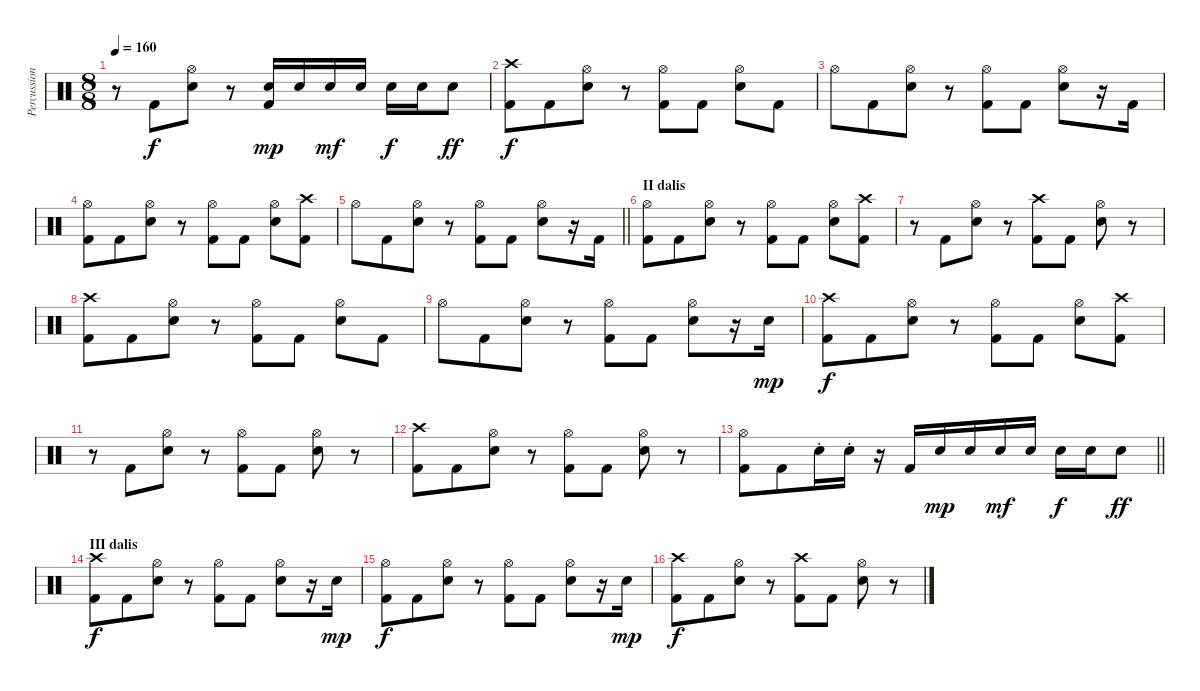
\track ("Percussion" "Percussion") {instrument percussion}
\staff {score}
\articulation defaults
\ts (8 8)
\tempo 160
\clef neutral
\ks c
r.8{dy f} "Kick (hit) 2".8 ("Hi-Hat (open)" "Snare (hit) 2").8 r.8 ("Snare (hit) 2" "Kick (hit) 2").16{dy mp} "Snare (hit) 2".16 "Snare (hit) 2".16{dy mf} "Snare (hit) 2".16 "Snare (hit) 2".16{dy f} "Snare (hit) 2".16 "Snare (hit) 2".8{dy ff} |
("Crash high (hit)" "Kick (hit) 2").8{dy f} "Kick (hit) 2".8 ("Hi-Hat (open)" "Snare (hit) 2").8 r.8 ("Hi-Hat (open)" "Kick (hit) 2").8 "Kick (hit) 2".8 ("Hi-Hat (open)" "Snare (hit) 2").8 "Kick (hit) 2".8 |
"Hi-Hat (open)".8 "Kick (hit) 2".8 ("Hi-Hat (open)" "Snare (hit) 2").8 r.8 ("Hi-Hat (open)" "Kick (hit) 2").8 "Kick (hit) 2".8 ("Hi-Hat (open)" "Snare (hit) 2").8 r.16 "Kick (hit) 2".16 |
("Hi-Hat (open)" "Kick (hit) 2").8 "Kick (hit) 2".8 ("Hi-Hat (open)" "Snare (hit) 2").8 r.8 ("Hi-Hat (open)" "Kick (hit) 2").8 "Kick (hit) 2".8 ("Hi-Hat (open)" "Snare (hit) 2").8 ("Crash high (hit)" "Kick (hit) 2").8 |
\barLineRight lightlight "Hi-Hat (open)".8 "Kick (hit) 2".8
("Hi-Hat (open)" "Snare (hit) 2").8 r.8 ("Hi-Hat (open)" "Kick (hit) 2").8 "Kick (hit) 2".8 ("Hi-Hat (open)" "Snare (hit) 2").8 r.16 "Kick (hit) 2".16 |
\section ("" "II dalis")
("Hi-Hat (open)" "Kick (hit) 2").8 "Kick (hit) 2".8 ("Hi-Hat (open)" "Snare (hit) 2").8 r.8 ("Hi-Hat (open)" "Kick (hit) 2").8 "Kick (hit) 2".8 ("Hi-Hat (open)" "Snare (hit) 2").8 ("Crash high (hit)" "Kick (hit) 2").8 |
r.8 "Kick (hit) 2".8 ("Hi-Hat (open)" "Snare (hit) 2").8 r.8 ("Crash high (hit)" "Kick (hit) 2").8 "Kick (hit) 2".8 ("Hi-Hat (open)" "Snare (hit) 2").8 r.8 |
("Crash high (hit)" "Kick (hit) 2").8 "Kick (hit) 2".8 ("Hi-Hat (open)" "Snare (hit) 2").8 r.8 ("Hi-Hat (open)" "Kick (hit) 2").8 "Kick (hit) 2".8 ("Hi-Hat (open)" "Snare (hit) 2").8 "Kick (hit) 2".8 |
"Hi-Hat (open)".8 "Kick (hit) 2".8 ("Hi-Hat (open)" "Snare (hit) 2").8 r.8 ("Hi-Hat (open)" "Kick (hit) 2").8 "Kick (hit) 2".8 ("Hi-Hat (open)" "Snare (hit) 2").8 r.16 "Snare (hit) 2".16{dy mp} |
("Crash high (hit)" "Kick (hit) 2").8{dy f} "Kick (hit) 2".8 ("Hi-Hat (open)" "Snare (hit) 2").8 r.8 ("Hi-Hat (open)" "Kick (hit) 2").8 "Kick (hit) 2".8 ("Hi-Hat (open)" "Snare (hit) 2").8 ("Crash high (hit)" "Kick (hit) 2").8 |
r.8 "Kick (hit) 2".8 ("Hi-Hat (open)" "Snare (hit) 2").8 r.8 ("Hi-Hat (open)" "Kick (hit) 2").8 "Kick (hit) 2".8 ("Hi-Hat (open)" "Snare (hit) 2").8 r.8 |
("Crash high (hit)" "Kick (hit) 2").8 "Kick (hit) 2".8 ("Hi-Hat (open)" "Snare (hit) 2").8 r.8 ("Hi-Hat (open)" "Kick (hit) 2").8 "Kick (hit) 2".8 ("Hi-Hat (open)" "Snare (hit) 2").8 r.8 |
\barLineRight lightlight
("Hi-Hat (open)" "Kick (hit) 2").8 "Kick (hit) 2".8 "Snare (hit) 2"{st}.16 "Snare (hit) 2"{st}.16 r.16 "Kick (hit) 2".16 "Snare (hit) 2".16{dy mp} "Snare (hit) 2".16 "Snare (hit) 2".16{dy mf} "Snare (hit) 2".16 "Snare (hit) 2".16{dy f} "Snare (hit) 2".16 "Snare (hit) 2".8{dy ff} |
\section ("" "III dalis")
("Crash high (hit)" "Kick (hit) 2").8{dy f} "Kick (hit) 2".8 ("Hi-Hat (open)" "Snare (hit) 2").8 r.8 ("Hi-Hat (open)" "Kick (hit) 2").8 "Kick (hit) 2".8 ("Hi-Hat (open)" "Snare (hit) 2").8 r.16 "Snare (hit) 2".16{dy mp} |
("Hi-Hat (open)" "Kick (hit) 2").8{dy f} "Kick (hit) 2".8 ("Hi-Hat (open)" "Snare (hit) 2").8 r.8 ("Hi-Hat (open)" "Kick (hit) 2").8 "Kick (hit) 2".8 ("Hi-Hat (open)" "Snare (hit) 2").8 r.16 "Snare (hit) 2".16{dy mp} |
("Crash high (hit)" "Kick (hit) 2").8{dy f} "Kick (hit) 2".8 ("Hi-Hat (open)" "Snare (hit) 2").8 r.8 ("Crash high (hit)" "Kick (hit) 2").8 "Kick (hit) 2".8 ("Hi-Hat (open)" "Snare (hit) 2").8 r.8
